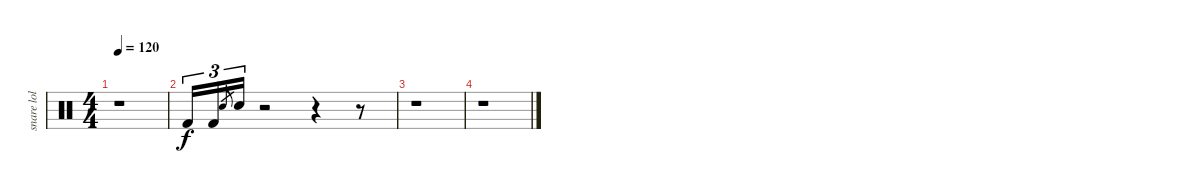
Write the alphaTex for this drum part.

\track ("snare lol lazy" "snare lol ") {instrument percussion}
\staff {score}
\articulation defaults
\ts (4 4)
\tempo 120
\clef neutral
\ks c
r.1{dy f} |
"Kick (hit) 2".16{tu (3 2)} "Kick (hit) 2".16{tu (3 2)} "Snare (hit) 2".8{gr} "Snare (hit) 2".16{tu (3 2)} r.2 r.4 r.8 |
r.1 |
r.1
